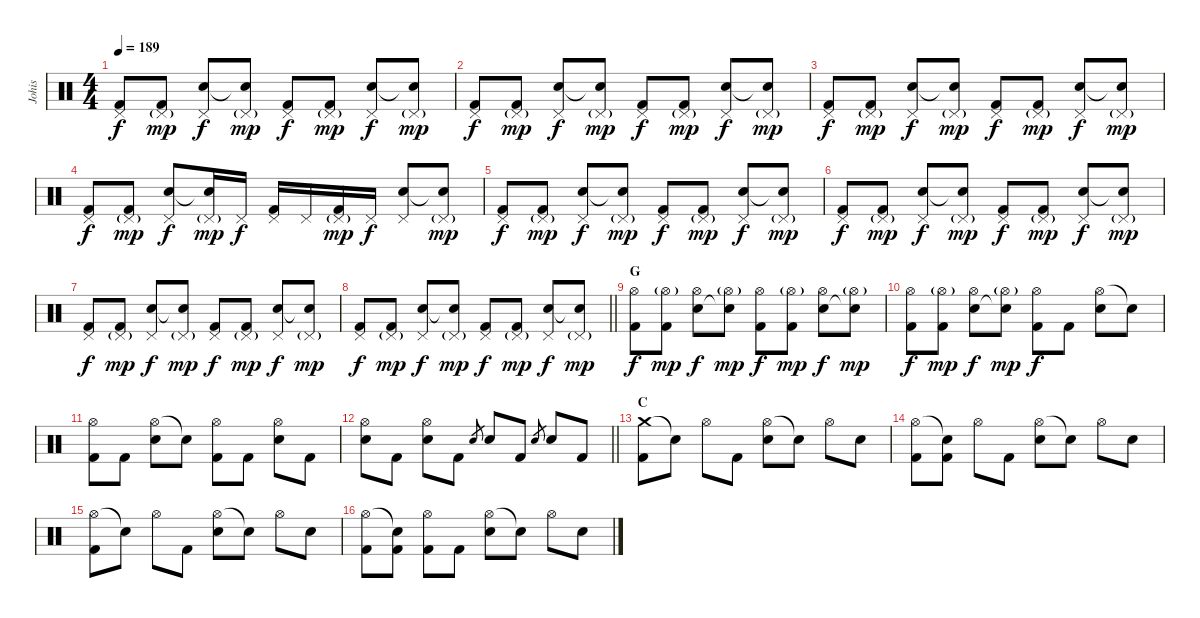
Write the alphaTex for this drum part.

\track ("Johis" "Johis") {instrument percussion}
\staff {score}
\articulation defaults
\ts (4 4)
\tempo 189
\clef neutral
\ks c
("Pedal Hi-Hat (hit)" "Kick (hit) 2").8{dy f} ("Pedal Hi-Hat (hit)"{g} "Kick (hit) 2").8{dy mp} ("Pedal Hi-Hat (hit)" "Electric Snare (hit)").8{dy f} ("Pedal Hi-Hat (hit)"{g} "Snare (hit)"{t}).8{dy mp} ("Pedal Hi-Hat (hit)" "Kick (hit) 2").8{dy f} ("Pedal Hi-Hat (hit)"{g} "Kick (hit) 2").8{dy mp} ("Pedal Hi-Hat (hit)" "Electric Snare (hit)").8{dy f} ("Pedal Hi-Hat (hit)"{g} "Snare (hit)"{t}).8{dy mp} |
("Pedal Hi-Hat (hit)" "Kick (hit) 2").8{dy f} ("Pedal Hi-Hat (hit)"{g} "Kick (hit) 2").8{dy mp} ("Pedal Hi-Hat (hit)" "Electric Snare (hit)").8{dy f} ("Pedal Hi-Hat (hit)"{g} "Snare (hit)"{t}).8{dy mp} ("Pedal Hi-Hat (hit)" "Kick (hit) 2").8{dy f} ("Pedal Hi-Hat (hit)"{g} "Kick (hit) 2").8{dy mp} ("Pedal Hi-Hat (hit)" "Electric Snare (hit)").8{dy f} ("Pedal Hi-Hat (hit)"{g} "Snare (hit)"{t}).8{dy mp} |
("Pedal Hi-Hat (hit)" "Kick (hit) 2").8{dy f} ("Pedal Hi-Hat (hit)"{g} "Kick (hit) 2").8{dy mp} ("Pedal Hi-Hat (hit)" "Electric Snare (hit)").8{dy f} ("Pedal Hi-Hat (hit)"{g} "Snare (hit)"{t}).8{dy mp} ("Pedal Hi-Hat (hit)" "Kick (hit) 2").8{dy f} ("Pedal Hi-Hat (hit)"{g} "Kick (hit) 2").8{dy mp} ("Pedal Hi-Hat (hit)" "Electric Snare (hit)").8{dy f} ("Pedal Hi-Hat (hit)"{g} "Snare (hit)"{t}).8{dy mp} |
("Pedal Hi-Hat (hit)" "Kick (hit) 2").8{dy f} ("Pedal Hi-Hat (hit)"{g} "Kick (hit) 2").8{dy mp} ("Pedal Hi-Hat (hit)" "Electric Snare (hit)").8{dy f} ("Pedal Hi-Hat (hit)"{g} "Snare (hit)"{t}).16{dy mp} "Pedal Hi-Hat (hit)".16{dy f} ("Pedal Hi-Hat (hit)" "Kick (hit) 2").16 "Pedal Hi-Hat (hit)".16 ("Pedal Hi-Hat (hit)"{g} "Kick (hit) 2").16{dy mp} "Pedal Hi-Hat (hit)".16{dy f} ("Pedal Hi-Hat (hit)" "Electric Snare (hit)").8 ("Pedal Hi-Hat (hit)"{g} "Snare (hit)"{t}).8{dy mp} |
("Pedal Hi-Hat (hit)" "Kick (hit) 2").8{dy f} ("Pedal Hi-Hat (hit)"{g} "Kick (hit) 2").8{dy mp} ("Pedal Hi-Hat (hit)" "Electric Snare (hit)").8{dy f} ("Pedal Hi-Hat (hit)"{g} "Snare (hit)"{t}).8{dy mp} ("Pedal Hi-Hat (hit)" "Kick (hit) 2").8{dy f} ("Pedal Hi-Hat (hit)"{g} "Kick (hit) 2").8{dy mp} ("Pedal Hi-Hat (hit)" "Electric Snare (hit)").8{dy f} ("Pedal Hi-Hat (hit)"{g} "Snare (hit)"{t}).8{dy mp} |
("Pedal Hi-Hat (hit)" "Kick (hit) 2").8{dy f} ("Pedal Hi-Hat (hit)"{g} "Kick (hit) 2").8{dy mp} ("Pedal Hi-Hat (hit)" "Electric Snare (hit)").8{dy f} ("Pedal Hi-Hat (hit)"{g} "Snare (hit)"{t}).8{dy mp} ("Pedal Hi-Hat (hit)" "Kick (hit) 2").8{dy f} ("Pedal Hi-Hat (hit)"{g} "Kick (hit) 2").8{dy mp} ("Pedal Hi-Hat (hit)" "Electric Snare (hit)").8{dy f} ("Pedal Hi-Hat (hit)"{g} "Snare (hit)"{t}).8{dy mp} |
("Pedal Hi-Hat (hit)" "Kick (hit) 2").8{dy f} ("Pedal Hi-Hat (hit)"{g} "Kick (hit) 2").8{dy mp} ("Pedal Hi-Hat (hit)" "Electric Snare (hit)").8{dy f} ("Pedal Hi-Hat (hit)"{g} "Snare (hit)"{t}).8{dy mp} ("Pedal Hi-Hat (hit)" "Kick (hit) 2").8{dy f} ("Pedal Hi-Hat (hit)"{g} "Kick (hit) 2").8{dy mp} ("Pedal Hi-Hat (hit)" "Electric Snare (hit)").8{dy f} ("Pedal Hi-Hat (hit)"{g} "Snare (hit)"{t}).8{dy mp} |
\barLineRight lightlight
("Pedal Hi-Hat (hit)" "Kick (hit) 2").8{dy f} ("Pedal Hi-Hat (hit)"{g} "Kick (hit) 2").8{dy mp} ("Pedal Hi-Hat (hit)" "Electric Snare (hit)").8{dy f} ("Pedal Hi-Hat (hit)"{g} "Snare (hit)"{t}).8{dy mp} ("Pedal Hi-Hat (hit)" "Kick (hit) 2").8{dy f} ("Pedal Hi-Hat (hit)"{g} "Kick (hit) 2").8{dy mp} ("Pedal Hi-Hat (hit)" "Electric Snare (hit)").8{dy f} ("Pedal Hi-Hat (hit)"{g} "Snare (hit)"{t}).8{dy mp} |
\section ("" "G")
("Hi-Hat (open)" "Kick (hit) 2").8{dy f} ("Hi-Hat (open)"{g} "Kick (hit) 2").8{dy mp} ("Hi-Hat (open)" "Electric Snare (hit)").8{dy f} ("Hi-Hat (open)"{g} "Snare (hit)"{t}).8{dy mp} ("Hi-Hat (open)" "Kick (hit) 2").8{dy f} ("Hi-Hat (open)"{g} "Kick (hit) 2").8{dy mp} ("Hi-Hat (open)" "Electric Snare (hit)").8{dy f} ("Hi-Hat (open)"{g} "Snare (hit)"{t}).8{dy mp} |
("Hi-Hat (open)" "Kick (hit) 2").8{dy f} ("Hi-Hat (open)"{g} "Kick (hit) 2").8{dy mp} ("Hi-Hat (open)" "Electric Snare (hit)").8{dy f} ("Hi-Hat (open)"{g} "Snare (hit)"{t}).8{dy mp} ("Hi-Hat (open)" "Kick (hit) 2").8{dy f} "Kick (hit) 2".8 ("Hi-Hat (open)" "Electric Snare (hit)").8 "Snare (hit)"{t}.8 |
("Hi-Hat (open)" "Kick (hit) 2").8 "Kick (hit) 2".8 ("Hi-Hat (open)" "Electric Snare (hit)").8 "Snare (hit)"{t}.8 ("Hi-Hat (open)" "Kick (hit) 2").8 "Kick (hit) 2".8 ("Hi-Hat (open)" "Electric Snare (hit)").8 "Kick (hit) 2".8 |
\barLineRight lightlight
("Hi-Hat (open)" "Electric Snare (hit)").8 "Kick (hit) 2".8 ("Hi-Hat (open)" "Electric Snare (hit)").8 "Kick (hit) 2".8 "Electric Snare (hit)".8{gr} "Electric Snare (hit)".8 "Kick (hit) 2".8 "Electric Snare (hit)".8{gr} "Electric Snare (hit)".8 "Kick (hit) 2".8 |
\section ("" "C")
("Crash medium (hit)" "Kick (hit) 2").8 "Snare (hit)"{t}.8 "Hi-Hat (open)".8 "Kick (hit) 2".8 ("Hi-Hat (open)" "Electric Snare (hit)").8 "Snare (hit)"{t}.8 "Hi-Hat (open)".8 "Electric Snare (hit)".8 |
("Hi-Hat (open)" "Kick (hit) 2").8 ("Snare (hit)"{t} "Kick (hit) 2").8 "Hi-Hat (open)".8 "Kick (hit) 2".8 ("Hi-Hat (open)" "Electric Snare (hit)").8 "Snare (hit)"{t}.8 "Hi-Hat (open)".8 "Electric Snare (hit)".8 |
("Hi-Hat (open)" "Kick (hit) 2").8 "Snare (hit)"{t}.8 "Hi-Hat (open)".8 "Kick (hit) 2".8 ("Hi-Hat (open)" "Electric Snare (hit)").8 "Snare (hit)"{t}.8 "Hi-Hat (open)".8 "Electric Snare (hit)".8 |
("Hi-Hat (open)" "Kick (hit) 2").8 ("Snare (hit)"{t} "Kick (hit) 2").8 ("Hi-Hat (open)" "Kick (hit) 2").8 "Kick (hit) 2".8 ("Hi-Hat (open)" "Electric Snare (hit)").8 "Snare (hit)"{t}.8 "Hi-Hat (open)".8 "Electric Snare (hit)".8
